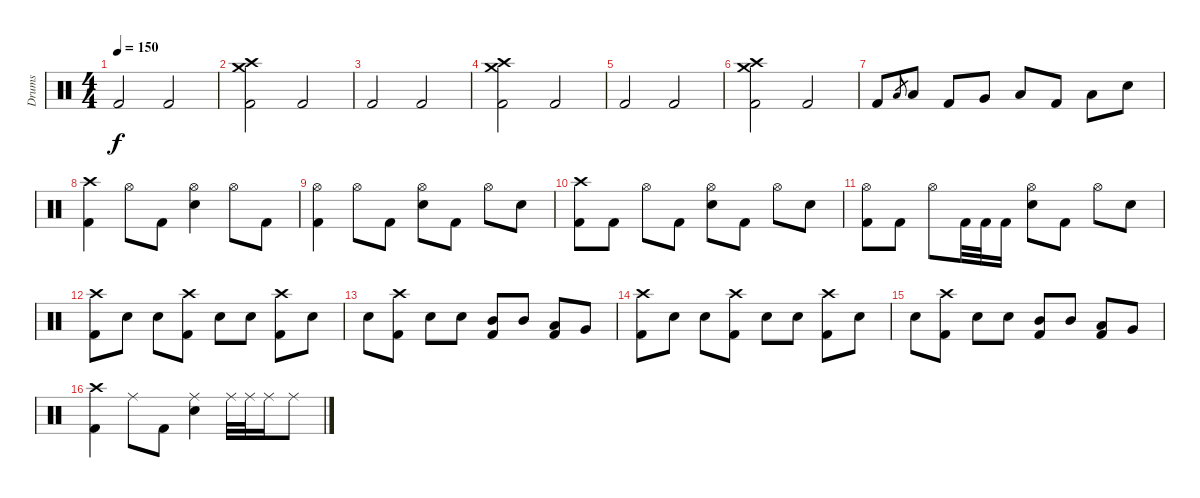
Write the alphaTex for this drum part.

\track ("Drums" "Drums") {instrument percussion}
\staff {score}
\articulation defaults
\ts (4 4)
\tempo 150
\clef neutral
\ks c "Kick (hit) 2".2{dy f} "Kick (hit) 2".2
|
("Crash high (hit)" "Crash medium (hit)" "Kick (hit) 2").2 "Kick (hit) 2".2 |
"Kick (hit) 2".2 "Kick (hit) 2".2 |
("Crash high (hit)" "Crash medium (hit)" "Kick (hit) 2").2 "Kick (hit) 2".2 |
"Kick (hit) 2".2 "Kick (hit) 2".2 |
("Crash high (hit)" "Crash medium (hit)" "Kick (hit) 2").2 "Kick (hit) 2".2 |
"Kick (hit) 2".8 "Low Tom (hit)".8{gr} "Low Tom (hit)".8 "Kick (hit) 2".8 "Very Low Tom (hit)".8 "Low Tom (hit)".8 "Kick (hit) 2".8 "Low Floor Tom (hit)".8 "Electric Snare (hit)".8 |
("Crash high (hit)" "Kick (hit) 2").4 "Hi-Hat (open)".8 "Kick (hit) 2".8 ("Hi-Hat (open)" "Electric Snare (hit)").4 "Hi-Hat (open)".8 "Kick (hit) 2".8 |
("Hi-Hat (open)" "Kick (hit) 2").4 "Hi-Hat (open)".8 "Kick (hit) 2".8 ("Hi-Hat (open)" "Electric Snare (hit)").8 "Kick (hit) 2".8 "Hi-Hat (open)".8 "Electric Snare (hit)".8 |
("Crash high (hit)" "Kick (hit) 2").8 "Kick (hit) 2".8 "Hi-Hat (open)".8 "Kick (hit) 2".8 ("Hi-Hat (open)" "Electric Snare (hit)").8 "Kick (hit) 2".8 "Hi-Hat (open)".8 "Electric Snare (hit)".8 |
("Hi-Hat (open)" "Kick (hit) 2").8 "Kick (hit) 2".8 "Hi-Hat (open)".8 "Kick (hit) 2".32 "Kick (hit) 2".32 "Kick (hit) 2".16 ("Hi-Hat (open)" "Electric Snare (hit)").8 "Kick (hit) 2".8 "Hi-Hat (open)".8 "Electric Snare (hit)".8 |
("Crash high (hit)" "Kick (hit) 2").8 "Electric Snare (hit)".8 "Electric Snare (hit)".8 ("Crash high (hit)" "Kick (hit) 2").8 "Electric Snare (hit)".8 "Electric Snare (hit)".8 ("Crash high (hit)" "Kick (hit) 2").8 "Electric Snare (hit)".8 |
"Electric Snare (hit)".8 ("Crash high (hit)" "Kick (hit) 2").8 "Electric Snare (hit)".8 "Electric Snare (hit)".8 ("Mid Tom (hit)" "Kick (hit) 2").8 "Mid Tom (hit)".8 ("Low Tom (hit)" "Kick (hit) 2").8 "Very Low Tom (hit)".8 |
("Crash high (hit)" "Kick (hit) 2").8 "Electric Snare (hit)".8 "Electric Snare (hit)".8 ("Crash high (hit)" "Kick (hit) 2").8 "Electric Snare (hit)".8 "Electric Snare (hit)".8 ("Crash high (hit)" "Kick (hit) 2").8 "Electric Snare (hit)".8 |
"Electric Snare (hit)".8 ("Crash high (hit)" "Kick (hit) 2").8 "Electric Snare (hit)".8 "Electric Snare (hit)".8 ("Mid Tom (hit)" "Kick (hit) 2").8 "Mid Tom (hit)".8 ("Low Tom (hit)" "Kick (hit) 2").8 "Very Low Tom (hit)".8 |
("Crash high (hit)" "Kick (hit) 2").4 "Ride (middle)".8 "Kick (hit) 2".8 ("Ride (middle)" "Electric Snare (hit)").4 "Ride (middle)".32 "Ride (middle)".32 "Ride (middle)".16 "Ride (middle)".8
